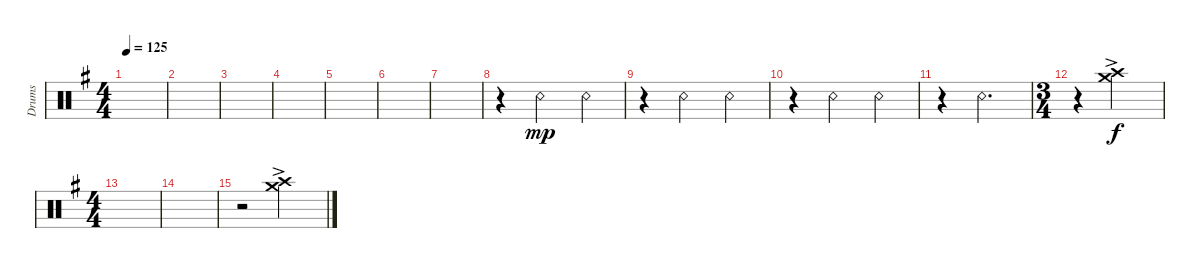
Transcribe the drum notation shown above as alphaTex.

\defaultSystemsLayout 4
\bracketExtendMode groupsimilarinstruments
\otherSystemsTrackNameOrientation horizontal
\track ("Drumkit" "Drums") {instrument percussion}
\staff {score}
\articulation defaults
\ts (4 4)
\tempo 125
\clef neutral
\scale
0.333333
\ks g
|
\scale
0.333333 |
\scale
0.333333 |
\scale
0.333333 |
\scale
0.333333 |
\scale
0.333333 |
\scale
0.333333 |
\scale
0.333333 r.4{beam Down} "Snare (rim shot)"{acc forcenatural}.2{dy mp beam Down} "Snare (rim shot)"{acc forcenatural}.4{beam Down} |
\scale
0.333333 r.4{beam Down} "Snare (rim shot)"{acc forcenatural}.2{beam Down} "Snare (rim shot)"{acc forcenatural}.4{beam Down} |
\scale
0.262911 r.4{beam Down} "Snare (rim shot)"{acc forcenatural}.2{beam Down} "Snare (rim shot)"{acc forcenatural}.4{beam Down} |
\scale
0.262911 r.4{beam Down} "Snare (rim shot)"{acc forcenatural}.2{d beam Down} |
\ts (3 4)
\scale
0.474178 r.4{beam Down} ("Crash high (hit)"{ac acc forcenatural} "Crash medium (hit)"{ac acc forcenatural}).2{dy f beam Down} |
\ts (4 4)
\scale
0.474178 |
\scale
0.262911 |
\scale
0.262911 r.2{beam Down} ("Crash high (hit)"{ac acc forcenatural} "Crash medium (hit)"{ac acc forcenatural}).2{beam Down} |
\scale
0.333333
